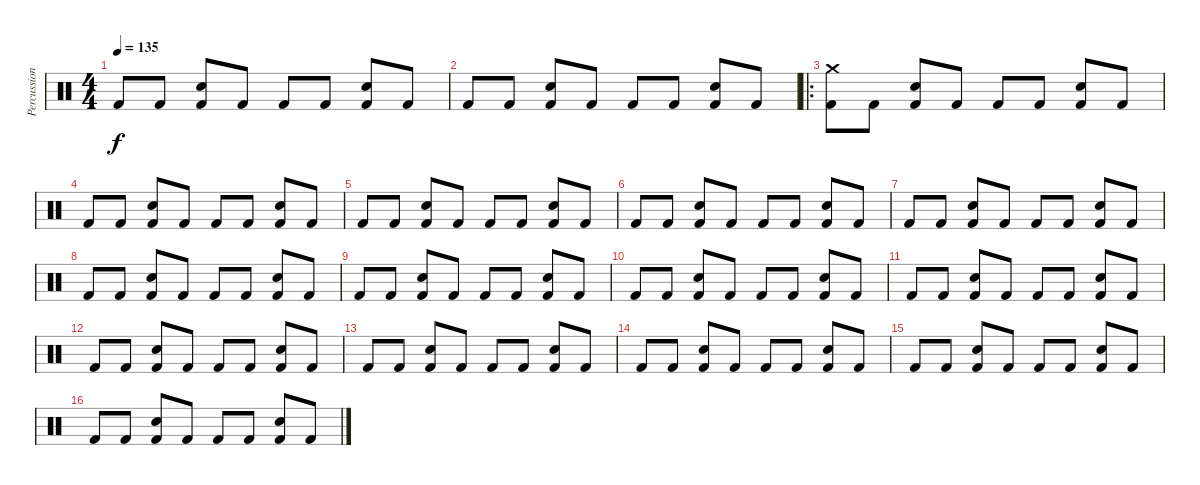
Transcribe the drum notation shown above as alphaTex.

\track ("Percussions" "Percussion") {instrument percussion}
\staff {score}
\articulation defaults
\ts (4 4)
\tempo 135
\clef neutral
\ks c "Kick (hit) 2".8{dy f} "Kick (hit) 2".8
("Snare (hit) 2" "Kick (hit) 2").8 "Kick (hit) 2".8 "Kick (hit) 2".8 "Kick (hit) 2".8 ("Snare (hit) 2" "Kick (hit) 2").8 "Kick (hit) 2".8 |
"Kick (hit) 2".8 "Kick (hit) 2".8 ("Snare (hit) 2" "Kick (hit) 2").8 "Kick (hit) 2".8 "Kick (hit) 2".8 "Kick (hit) 2".8 ("Snare (hit) 2" "Kick (hit) 2").8 "Kick (hit) 2".8 |
\ro
("Crash medium (hit)" "Kick (hit) 2").8 "Kick (hit) 2".8 ("Snare (hit) 2" "Kick (hit) 2").8 "Kick (hit) 2".8 "Kick (hit) 2".8 "Kick (hit) 2".8 ("Snare (hit) 2" "Kick (hit) 2").8 "Kick (hit) 2".8 |
"Kick (hit) 2".8 "Kick (hit) 2".8 ("Snare (hit) 2" "Kick (hit) 2").8 "Kick (hit) 2".8 "Kick (hit) 2".8 "Kick (hit) 2".8 ("Snare (hit) 2" "Kick (hit) 2").8 "Kick (hit) 2".8 |
"Kick (hit) 2".8 "Kick (hit) 2".8 ("Snare (hit) 2" "Kick (hit) 2").8 "Kick (hit) 2".8 "Kick (hit) 2".8 "Kick (hit) 2".8 ("Snare (hit) 2" "Kick (hit) 2").8 "Kick (hit) 2".8 |
"Kick (hit) 2".8 "Kick (hit) 2".8 ("Snare (hit) 2" "Kick (hit) 2").8 "Kick (hit) 2".8 "Kick (hit) 2".8 "Kick (hit) 2".8 ("Snare (hit) 2" "Kick (hit) 2").8 "Kick (hit) 2".8 |
"Kick (hit) 2".8 "Kick (hit) 2".8 ("Snare (hit) 2" "Kick (hit) 2").8 "Kick (hit) 2".8 "Kick (hit) 2".8 "Kick (hit) 2".8 ("Snare (hit) 2" "Kick (hit) 2").8 "Kick (hit) 2".8 |
"Kick (hit) 2".8 "Kick (hit) 2".8 ("Snare (hit) 2" "Kick (hit) 2").8 "Kick (hit) 2".8 "Kick (hit) 2".8 "Kick (hit) 2".8 ("Snare (hit) 2" "Kick (hit) 2").8 "Kick (hit) 2".8 |
"Kick (hit) 2".8 "Kick (hit) 2".8 ("Snare (hit) 2" "Kick (hit) 2").8 "Kick (hit) 2".8 "Kick (hit) 2".8 "Kick (hit) 2".8 ("Snare (hit) 2" "Kick (hit) 2").8 "Kick (hit) 2".8 |
"Kick (hit) 2".8 "Kick (hit) 2".8 ("Snare (hit) 2" "Kick (hit) 2").8 "Kick (hit) 2".8 "Kick (hit) 2".8 "Kick (hit) 2".8 ("Snare (hit) 2" "Kick (hit) 2").8 "Kick (hit) 2".8 |
"Kick (hit) 2".8 "Kick (hit) 2".8 ("Snare (hit) 2" "Kick (hit) 2").8 "Kick (hit) 2".8 "Kick (hit) 2".8 "Kick (hit) 2".8 ("Snare (hit) 2" "Kick (hit) 2").8 "Kick (hit) 2".8 |
"Kick (hit) 2".8 "Kick (hit) 2".8 ("Snare (hit) 2" "Kick (hit) 2").8 "Kick (hit) 2".8 "Kick (hit) 2".8 "Kick (hit) 2".8 ("Snare (hit) 2" "Kick (hit) 2").8 "Kick (hit) 2".8 |
"Kick (hit) 2".8 "Kick (hit) 2".8 ("Snare (hit) 2" "Kick (hit) 2").8 "Kick (hit) 2".8 "Kick (hit) 2".8 "Kick (hit) 2".8 ("Snare (hit) 2" "Kick (hit) 2").8 "Kick (hit) 2".8 |
"Kick (hit) 2".8 "Kick (hit) 2".8 ("Snare (hit) 2" "Kick (hit) 2").8 "Kick (hit) 2".8 "Kick (hit) 2".8 "Kick (hit) 2".8 ("Snare (hit) 2" "Kick (hit) 2").8 "Kick (hit) 2".8 |
"Kick (hit) 2".8 "Kick (hit) 2".8 ("Snare (hit) 2" "Kick (hit) 2").8 "Kick (hit) 2".8 "Kick (hit) 2".8 "Kick (hit) 2".8 ("Snare (hit) 2" "Kick (hit) 2").8 "Kick (hit) 2".8 |
"Kick (hit) 2".8 "Kick (hit) 2".8 ("Snare (hit) 2" "Kick (hit) 2").8 "Kick (hit) 2".8 "Kick (hit) 2".8 "Kick (hit) 2".8 ("Snare (hit) 2" "Kick (hit) 2").8 "Kick (hit) 2".8
